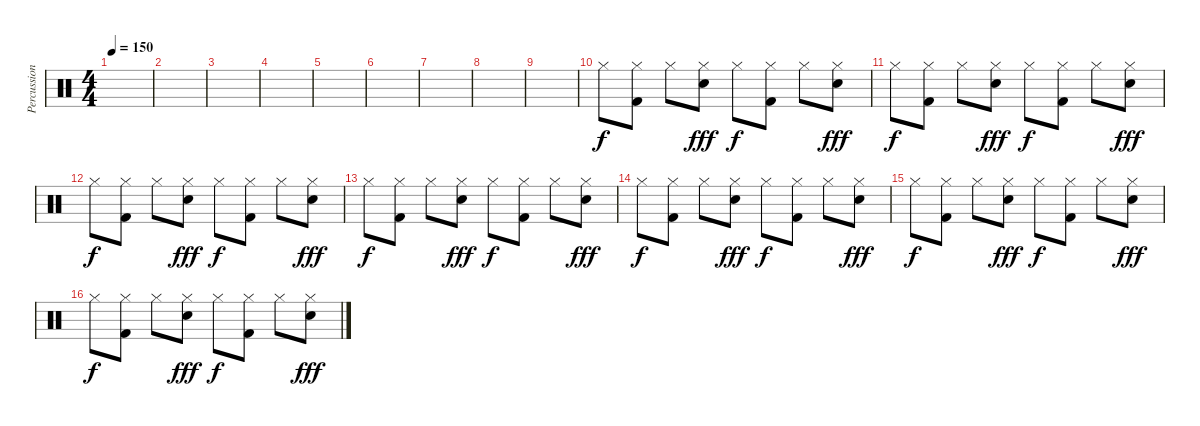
\track ("Percussion" "Percussion") {instrument percussion}
\staff {score}
\articulation defaults
\ts (4 4)
\tempo 150
\clef neutral
\ks c
|
|
|
|
|
|
|
|
|
"Hi-Hat (closed)".8{dy f} ("Hi-Hat (closed)" "Kick (hit) 2").8 "Hi-Hat (closed)".8 ("Hi-Hat (closed)" "Electric Snare (hit)").8{dy fff} "Hi-Hat (closed)".8{dy f} ("Hi-Hat (closed)" "Kick (hit) 2").8 "Hi-Hat (closed)".8 ("Hi-Hat (closed)" "Electric Snare (hit)").8{dy fff} |
"Hi-Hat (closed)".8{dy f} ("Hi-Hat (closed)" "Kick (hit) 2").8 "Hi-Hat (closed)".8 ("Hi-Hat (closed)" "Electric Snare (hit)").8{dy fff} "Hi-Hat (closed)".8{dy f} ("Hi-Hat (closed)" "Kick (hit) 2").8 "Hi-Hat (closed)".8 ("Hi-Hat (closed)" "Electric Snare (hit)").8{dy fff} |
"Hi-Hat (closed)".8{dy f} ("Hi-Hat (closed)" "Kick (hit) 2").8 "Hi-Hat (closed)".8 ("Hi-Hat (closed)" "Electric Snare (hit)").8{dy fff} "Hi-Hat (closed)".8{dy f} ("Hi-Hat (closed)" "Kick (hit) 2").8 "Hi-Hat (closed)".8 ("Hi-Hat (closed)" "Electric Snare (hit)").8{dy fff} |
"Hi-Hat (closed)".8{dy f} ("Hi-Hat (closed)" "Kick (hit) 2").8 "Hi-Hat (closed)".8 ("Hi-Hat (closed)" "Electric Snare (hit)").8{dy fff} "Hi-Hat (closed)".8{dy f} ("Hi-Hat (closed)" "Kick (hit) 2").8 "Hi-Hat (closed)".8 ("Hi-Hat (closed)" "Electric Snare (hit)").8{dy fff} |
"Hi-Hat (closed)".8{dy f} ("Hi-Hat (closed)" "Kick (hit) 2").8 "Hi-Hat (closed)".8 ("Hi-Hat (closed)" "Electric Snare (hit)").8{dy fff} "Hi-Hat (closed)".8{dy f} ("Hi-Hat (closed)" "Kick (hit) 2").8 "Hi-Hat (closed)".8 ("Hi-Hat (closed)" "Electric Snare (hit)").8{dy fff} |
"Hi-Hat (closed)".8{dy f} ("Hi-Hat (closed)" "Kick (hit) 2").8 "Hi-Hat (closed)".8 ("Hi-Hat (closed)" "Electric Snare (hit)").8{dy fff} "Hi-Hat (closed)".8{dy f} ("Hi-Hat (closed)" "Kick (hit) 2").8 "Hi-Hat (closed)".8 ("Hi-Hat (closed)" "Electric Snare (hit)").8{dy fff} |
"Hi-Hat (closed)".8{dy f} ("Hi-Hat (closed)" "Kick (hit) 2").8 "Hi-Hat (closed)".8 ("Hi-Hat (closed)" "Electric Snare (hit)").8{dy fff} "Hi-Hat (closed)".8{dy f} ("Hi-Hat (closed)" "Kick (hit) 2").8 "Hi-Hat (closed)".8 ("Hi-Hat (closed)" "Electric Snare (hit)").8{dy fff}
